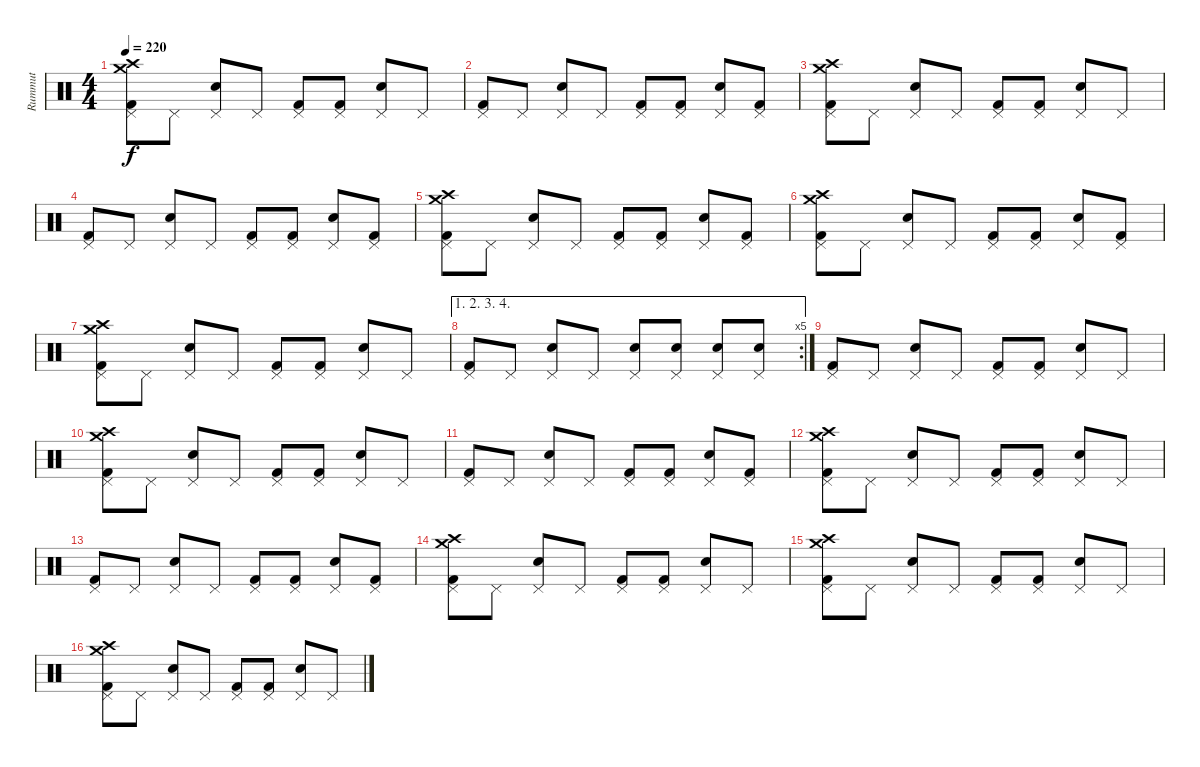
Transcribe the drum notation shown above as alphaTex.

\track ("Rummut" "Rummut") {instrument percussion}
\staff {score}
\articulation defaults
\ts (4 4)
\tempo 220
\clef neutral
\ks c
("Pedal Hi-Hat (hit)" "Crash high (hit)" "Kick (hit) 2" "Crash medium (hit)").8{dy f} "Pedal Hi-Hat (hit)".8 ("Pedal Hi-Hat (hit)" "Snare (hit) 2").8 "Pedal Hi-Hat (hit)".8 ("Pedal Hi-Hat (hit)" "Kick (hit) 2").8 ("Pedal Hi-Hat (hit)" "Kick (hit) 2").8 ("Pedal Hi-Hat (hit)" "Snare (hit) 2").8 "Pedal Hi-Hat (hit)".8 |
("Pedal Hi-Hat (hit)" "Kick (hit) 2").8 "Pedal Hi-Hat (hit)".8 ("Pedal Hi-Hat (hit)" "Snare (hit) 2").8 "Pedal Hi-Hat (hit)".8 ("Pedal Hi-Hat (hit)" "Kick (hit) 2").8 ("Pedal Hi-Hat (hit)" "Kick (hit) 2").8 ("Pedal Hi-Hat (hit)" "Snare (hit) 2").8 ("Pedal Hi-Hat (hit)" "Kick (hit) 2").8 |
("Pedal Hi-Hat (hit)" "Crash high (hit)" "Kick (hit) 2" "Crash medium (hit)").8 "Pedal Hi-Hat (hit)".8 ("Pedal Hi-Hat (hit)" "Snare (hit) 2").8 "Pedal Hi-Hat (hit)".8 ("Pedal Hi-Hat (hit)" "Kick (hit) 2").8 ("Pedal Hi-Hat (hit)" "Kick (hit) 2").8 ("Pedal Hi-Hat (hit)" "Snare (hit) 2").8 "Pedal Hi-Hat (hit)".8 |
("Pedal Hi-Hat (hit)" "Kick (hit) 2").8 "Pedal Hi-Hat (hit)".8 ("Pedal Hi-Hat (hit)" "Snare (hit) 2").8 "Pedal Hi-Hat (hit)".8 ("Pedal Hi-Hat (hit)" "Kick (hit) 2").8 ("Pedal Hi-Hat (hit)" "Kick (hit) 2").8 ("Pedal Hi-Hat (hit)" "Snare (hit) 2").8 ("Pedal Hi-Hat (hit)" "Kick (hit) 2").8 |
("Pedal Hi-Hat (hit)" "Crash medium (hit)" "Kick (hit) 2" "Crash high (hit)").8 "Pedal Hi-Hat (hit)".8 ("Pedal Hi-Hat (hit)" "Snare (hit) 2").8 "Pedal Hi-Hat (hit)".8 ("Pedal Hi-Hat (hit)" "Kick (hit) 2").8 ("Pedal Hi-Hat (hit)" "Kick (hit) 2").8 ("Pedal Hi-Hat (hit)" "Snare (hit) 2").8 ("Pedal Hi-Hat (hit)" "Kick (hit) 2").8 |
("Pedal Hi-Hat (hit)" "Crash high (hit)" "Kick (hit) 2" "Crash medium (hit)").8 "Pedal Hi-Hat (hit)".8 ("Pedal Hi-Hat (hit)" "Snare (hit) 2").8 "Pedal Hi-Hat (hit)".8 ("Pedal Hi-Hat (hit)" "Kick (hit) 2").8 ("Pedal Hi-Hat (hit)" "Kick (hit) 2").8 ("Pedal Hi-Hat (hit)" "Snare (hit) 2").8 ("Pedal Hi-Hat (hit)" "Kick (hit) 2").8 |
("Pedal Hi-Hat (hit)" "Crash medium (hit)" "Kick (hit) 2" "Crash high (hit)").8 "Pedal Hi-Hat (hit)".8 ("Pedal Hi-Hat (hit)" "Snare (hit) 2").8 "Pedal Hi-Hat (hit)".8 ("Pedal Hi-Hat (hit)" "Kick (hit) 2").8 ("Pedal Hi-Hat (hit)" "Kick (hit) 2").8 ("Pedal Hi-Hat (hit)" "Snare (hit) 2").8 "Pedal Hi-Hat (hit)".8 |
\ae (1 2 3 4)
\rc 5
("Pedal Hi-Hat (hit)" "Kick (hit) 2").8 "Pedal Hi-Hat (hit)".8 ("Pedal Hi-Hat (hit)" "Snare (hit) 2").8 "Pedal Hi-Hat (hit)".8 ("Pedal Hi-Hat (hit)" "Snare (hit) 2").8 ("Pedal Hi-Hat (hit)" "Snare (hit) 2").8 ("Pedal Hi-Hat (hit)" "Snare (hit) 2").8 ("Pedal Hi-Hat (hit)" "Snare (hit) 2").8 |
("Pedal Hi-Hat (hit)" "Kick (hit) 2").8 "Pedal Hi-Hat (hit)".8 ("Pedal Hi-Hat (hit)" "Snare (hit) 2").8 "Pedal Hi-Hat (hit)".8 ("Pedal Hi-Hat (hit)" "Kick (hit) 2").8 ("Pedal Hi-Hat (hit)" "Kick (hit) 2").8 ("Pedal Hi-Hat (hit)" "Snare (hit) 2").8 "Pedal Hi-Hat (hit)".8 |
("Pedal Hi-Hat (hit)" "Crash high (hit)" "Kick (hit) 2" "Crash medium (hit)").8 "Pedal Hi-Hat (hit)".8 ("Pedal Hi-Hat (hit)" "Snare (hit) 2").8 "Pedal Hi-Hat (hit)".8 ("Pedal Hi-Hat (hit)" "Kick (hit) 2").8 ("Pedal Hi-Hat (hit)" "Kick (hit) 2").8 ("Pedal Hi-Hat (hit)" "Snare (hit) 2").8 "Pedal Hi-Hat (hit)".8 |
("Pedal Hi-Hat (hit)" "Kick (hit) 2").8 "Pedal Hi-Hat (hit)".8 ("Pedal Hi-Hat (hit)" "Snare (hit) 2").8 "Pedal Hi-Hat (hit)".8 ("Pedal Hi-Hat (hit)" "Kick (hit) 2").8 ("Pedal Hi-Hat (hit)" "Kick (hit) 2").8 ("Pedal Hi-Hat (hit)" "Snare (hit) 2").8 ("Pedal Hi-Hat (hit)" "Kick (hit) 2").8 |
("Pedal Hi-Hat (hit)" "Crash high (hit)" "Kick (hit) 2" "Crash medium (hit)").8 "Pedal Hi-Hat (hit)".8 ("Pedal Hi-Hat (hit)" "Snare (hit) 2").8 "Pedal Hi-Hat (hit)".8 ("Pedal Hi-Hat (hit)" "Kick (hit) 2").8 ("Pedal Hi-Hat (hit)" "Kick (hit) 2").8 ("Pedal Hi-Hat (hit)" "Snare (hit) 2").8 "Pedal Hi-Hat (hit)".8 |
("Pedal Hi-Hat (hit)" "Kick (hit) 2").8 "Pedal Hi-Hat (hit)".8 ("Pedal Hi-Hat (hit)" "Snare (hit) 2").8 "Pedal Hi-Hat (hit)".8 ("Pedal Hi-Hat (hit)" "Kick (hit) 2").8 ("Pedal Hi-Hat (hit)" "Kick (hit) 2").8 ("Pedal Hi-Hat (hit)" "Snare (hit) 2").8 ("Pedal Hi-Hat (hit)" "Kick (hit) 2").8 |
("Pedal Hi-Hat (hit)" "Crash medium (hit)" "Kick (hit) 2" "Crash high (hit)").8 "Pedal Hi-Hat (hit)".8 ("Pedal Hi-Hat (hit)" "Snare (hit) 2").8 "Pedal Hi-Hat (hit)".8 ("Pedal Hi-Hat (hit)" "Kick (hit) 2").8 ("Pedal Hi-Hat (hit)" "Kick (hit) 2").8 ("Pedal Hi-Hat (hit)" "Snare (hit) 2").8 "Pedal Hi-Hat (hit)".8 |
("Pedal Hi-Hat (hit)" "Crash high (hit)" "Kick (hit) 2" "Crash medium (hit)").8 "Pedal Hi-Hat (hit)".8 ("Pedal Hi-Hat (hit)" "Snare (hit) 2").8 "Pedal Hi-Hat (hit)".8 ("Pedal Hi-Hat (hit)" "Kick (hit) 2").8 ("Pedal Hi-Hat (hit)" "Kick (hit) 2").8 ("Pedal Hi-Hat (hit)" "Snare (hit) 2").8 "Pedal Hi-Hat (hit)".8 |
("Pedal Hi-Hat (hit)" "Crash medium (hit)" "Kick (hit) 2" "Crash high (hit)").8 "Pedal Hi-Hat (hit)".8 ("Pedal Hi-Hat (hit)" "Snare (hit) 2").8 "Pedal Hi-Hat (hit)".8 ("Pedal Hi-Hat (hit)" "Kick (hit) 2").8 ("Pedal Hi-Hat (hit)" "Kick (hit) 2").8 ("Pedal Hi-Hat (hit)" "Snare (hit) 2").8 "Pedal Hi-Hat (hit)".8
